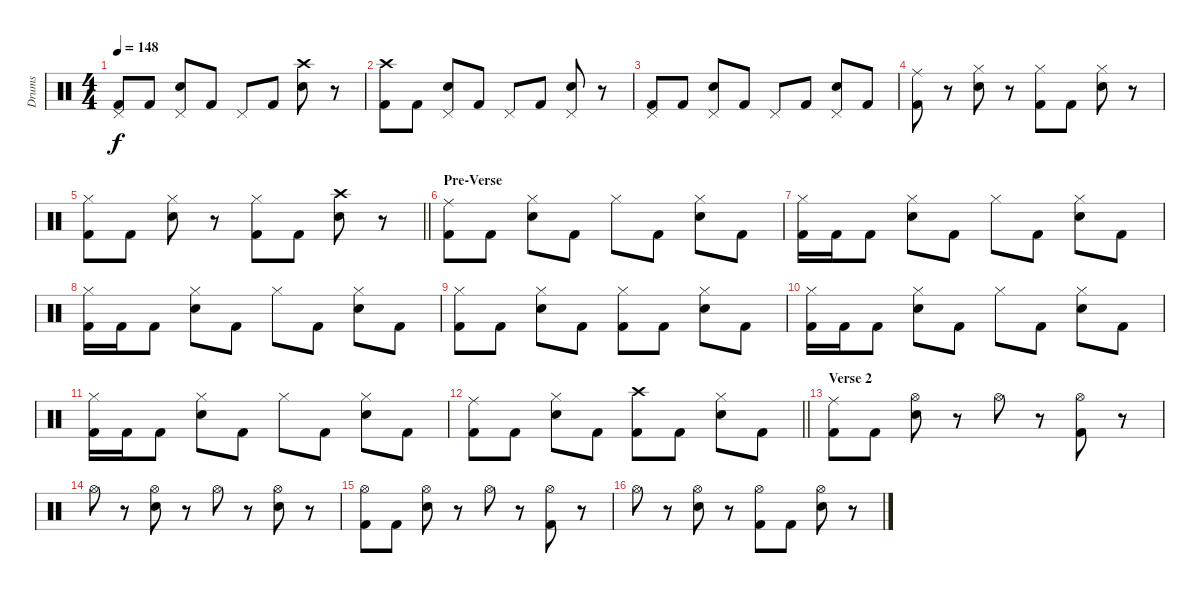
\track ("Drums" "Drums") {instrument percussion}
\staff {score}
\articulation defaults
\ts (4 4)
\tempo 148
\clef neutral
\ks c
("Pedal Hi-Hat (hit)" "Kick (hit) 2").8{dy f} "Kick (hit) 2".8 ("Pedal Hi-Hat (hit)" "Electric Snare (hit)").8 "Kick (hit) 2".8 "Pedal Hi-Hat (hit)".8 "Kick (hit) 2".8 ("Crash high (hit)" "Electric Snare (hit)").8 r.8 |
("Crash high (hit)" "Kick (hit) 2").8 "Kick (hit) 2".8 ("Pedal Hi-Hat (hit)" "Electric Snare (hit)").8 "Kick (hit) 2".8 "Pedal Hi-Hat (hit)".8 "Kick (hit) 2".8 ("Pedal Hi-Hat (hit)" "Electric Snare (hit)").8 r.8 |
("Pedal Hi-Hat (hit)" "Kick (hit) 2").8 "Kick (hit) 2".8 ("Pedal Hi-Hat (hit)" "Electric Snare (hit)").8 "Kick (hit) 2".8 "Pedal Hi-Hat (hit)".8 "Kick (hit) 2".8 ("Pedal Hi-Hat (hit)" "Electric Snare (hit)").8 "Kick (hit) 2".8 |
("Ride (middle)" "Kick (hit) 2").8 r.8 ("Hi-Hat (closed)" "Electric Snare (hit)").8 r.8 ("Hi-Hat (closed)" "Kick (hit) 2").8 "Kick (hit) 2".8 ("Hi-Hat (closed)" "Electric Snare (hit)").8 r.8 |
\barLineRight lightlight
("Hi-Hat (closed)" "Kick (hit) 2").8 "Kick (hit) 2".8 ("Hi-Hat (closed)" "Electric Snare (hit)").8 r.8 ("Hi-Hat (closed)" "Kick (hit) 2").8 "Kick (hit) 2".8 ("Crash high (hit)" "Electric Snare (hit)").8 r.8 |
\section ("" "Pre-Verse")
("Ride (middle)" "Kick (hit) 2").8 "Kick (hit) 2".8 ("Hi-Hat (closed)" "Electric Snare (hit)").8 "Kick (hit) 2".8 "Hi-Hat (closed)".8 "Kick (hit) 2".8 ("Hi-Hat (closed)" "Electric Snare (hit)").8 "Kick (hit) 2".8 |
("Hi-Hat (closed)" "Kick (hit) 2").16 "Kick (hit) 2".16 "Kick (hit) 2".8 ("Hi-Hat (closed)" "Electric Snare (hit)").8 "Kick (hit) 2".8 "Hi-Hat (closed)".8 "Kick (hit) 2".8 ("Hi-Hat (closed)" "Electric Snare (hit)").8 "Kick (hit) 2".8 |
("Hi-Hat (closed)" "Kick (hit) 2").16 "Kick (hit) 2".16 "Kick (hit) 2".8 ("Hi-Hat (closed)" "Electric Snare (hit)").8 "Kick (hit) 2".8 "Hi-Hat (closed)".8 "Kick (hit) 2".8 ("Hi-Hat (closed)" "Electric Snare (hit)").8 "Kick (hit) 2".8 |
("Hi-Hat (closed)" "Kick (hit) 2").8 "Kick (hit) 2".8 ("Hi-Hat (closed)" "Electric Snare (hit)").8 "Kick (hit) 2".8 ("Hi-Hat (closed)" "Kick (hit) 2").8 "Kick (hit) 2".8 ("Hi-Hat (closed)" "Electric Snare (hit)").8 "Kick (hit) 2".8 |
("Hi-Hat (closed)" "Kick (hit) 2").16 "Kick (hit) 2".16 "Kick (hit) 2".8 ("Hi-Hat (closed)" "Electric Snare (hit)").8 "Kick (hit) 2".8 "Hi-Hat (closed)".8 "Kick (hit) 2".8 ("Hi-Hat (closed)" "Electric Snare (hit)").8 "Kick (hit) 2".8 |
("Hi-Hat (closed)" "Kick (hit) 2").16 "Kick (hit) 2".16 "Kick (hit) 2".8 ("Hi-Hat (closed)" "Electric Snare (hit)").8 "Kick (hit) 2".8 "Hi-Hat (closed)".8 "Kick (hit) 2".8 ("Hi-Hat (closed)" "Electric Snare (hit)").8 "Kick (hit) 2".8 |
\barLineRight lightlight
("Ride (middle)" "Kick (hit) 2").8 "Kick (hit) 2".8 ("Hi-Hat (closed)" "Electric Snare (hit)").8 "Kick (hit) 2".8 ("Crash high (hit)" "Kick (hit) 2").8 "Kick (hit) 2".8 ("Hi-Hat (closed)" "Electric Snare (hit)").8 "Kick (hit) 2".8 |
\section ("" "Verse 2")
("Ride (middle)" "Kick (hit) 2").8 "Kick (hit) 2".8 ("Hi-Hat (open)" "Electric Snare (hit)").8 r.8 "Hi-Hat (open)".8 r.8 ("Hi-Hat (open)" "Kick (hit) 2").8 r.8 |
"Hi-Hat (open)".8 r.8 ("Hi-Hat (open)" "Electric Snare (hit)").8 r.8 "Hi-Hat (open)".8 r.8 ("Hi-Hat (open)" "Electric Snare (hit)").8 r.8 |
("Hi-Hat (open)" "Kick (hit) 2").8 "Kick (hit) 2".8 ("Hi-Hat (open)" "Electric Snare (hit)").8 r.8 "Hi-Hat (open)".8 r.8 ("Hi-Hat (open)" "Kick (hit) 2").8 r.8 |
"Hi-Hat (open)".8 r.8 ("Hi-Hat (open)" "Electric Snare (hit)").8 r.8 ("Hi-Hat (open)" "Kick (hit) 2").8 "Kick (hit) 2".8 ("Hi-Hat (open)" "Electric Snare (hit)").8 r.8
